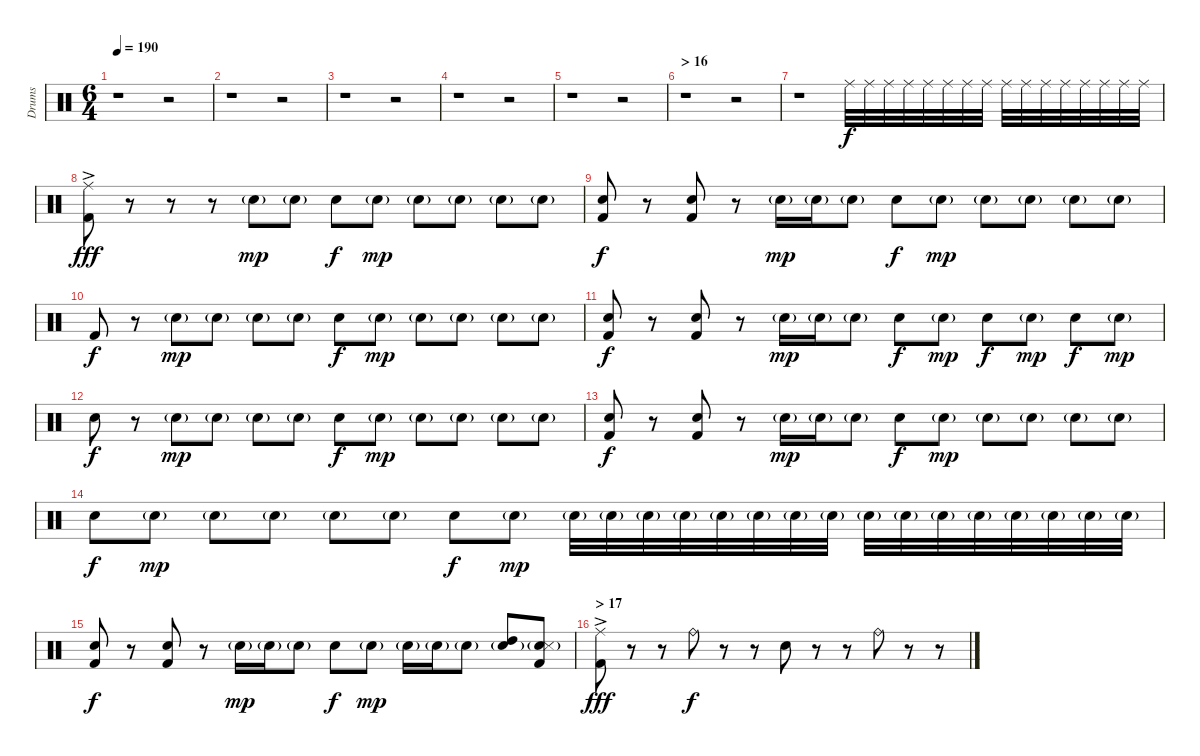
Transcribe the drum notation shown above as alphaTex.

\track ("Drums" "Drums") {instrument percussion}
\staff {score}
\articulation defaults
\ts (6 4)
\tempo 190
\clef neutral
\ks c
r.1{dy fff} r.2 |
r.1 r.2 |
r.1 r.2 |
r.1 r.2 |
r.1 r.2 |
\section ("" "> 16")
r.1 r.2 |
r.1{volume 0} "Ride (middle)".32{dy f volume 13} "Ride (middle)".32 "Ride (middle)".32 "Ride (middle)".32 "Ride (middle)".32 "Ride (middle)".32 "Ride (middle)".32 "Ride (middle)".32 "Ride (middle)".32 "Ride (middle)".32 "Ride (middle)".32 "Ride (middle)".32 "Ride (middle)".32 "Ride (middle)".32 "Ride (middle)".32 "Ride (middle)".32 |
("Ride (middle)"{ac} "Kick (hit) 2").8{dy fff} r.8 r.8 r.8 "Electric Snare (hit)"{g}.8{dy mp} "Electric Snare (hit)"{g}.8 "Electric Snare (hit)".8{dy f} "Electric Snare (hit)"{g}.8{dy mp} "Electric Snare (hit)"{g}.8 "Electric Snare (hit)"{g}.8 "Electric Snare (hit)"{g}.8 "Electric Snare (hit)"{g}.8 |
("Electric Snare (hit)" "Kick (hit) 2").8{dy f} r.8 ("Electric Snare (hit)" "Kick (hit) 2").8 r.8 "Electric Snare (hit)"{g}.16{dy mp} "Electric Snare (hit)"{g}.16 "Electric Snare (hit)"{g}.8 "Electric Snare (hit)".8{dy f} "Electric Snare (hit)"{g}.8{dy mp} "Electric Snare (hit)"{g}.8 "Electric Snare (hit)"{g}.8 "Electric Snare (hit)"{g}.8 "Electric Snare (hit)"{g}.8 |
"Kick (hit) 2".8{dy f} r.8 "Electric Snare (hit)"{g}.8{dy mp} "Electric Snare (hit)"{g}.8 "Electric Snare (hit)"{g}.8 "Electric Snare (hit)"{g}.8 "Electric Snare (hit)".8{dy f} "Electric Snare (hit)"{g}.8{dy mp} "Electric Snare (hit)"{g}.8 "Electric Snare (hit)"{g}.8 "Electric Snare (hit)"{g}.8 "Electric Snare (hit)"{g}.8 |
("Electric Snare (hit)" "Kick (hit) 2").8{dy f} r.8 ("Electric Snare (hit)" "Kick (hit) 2").8 r.8 "Electric Snare (hit)"{g}.16{dy mp} "Electric Snare (hit)"{g}.16 "Electric Snare (hit)"{g}.8 "Electric Snare (hit)".8{dy f} "Electric Snare (hit)"{g}.8{dy mp} "Electric Snare (hit)".8{dy f} "Electric Snare (hit)"{g}.8{dy mp} "Electric Snare (hit)".8{dy f} "Electric Snare (hit)"{g}.8{dy mp} |
"Electric Snare (hit)".8{dy f} r.8 "Electric Snare (hit)"{g}.8{dy mp} "Electric Snare (hit)"{g}.8 "Electric Snare (hit)"{g}.8 "Electric Snare (hit)"{g}.8 "Electric Snare (hit)".8{dy f} "Electric Snare (hit)"{g}.8{dy mp} "Electric Snare (hit)"{g}.8 "Electric Snare (hit)"{g}.8 "Electric Snare (hit)"{g}.8 "Electric Snare (hit)"{g}.8 |
("Electric Snare (hit)" "Kick (hit) 2").8{dy f} r.8 ("Electric Snare (hit)" "Kick (hit) 2").8 r.8 "Electric Snare (hit)"{g}.16{dy mp} "Electric Snare (hit)"{g}.16 "Electric Snare (hit)"{g}.8 "Electric Snare (hit)".8{dy f} "Electric Snare (hit)"{g}.8{dy mp} "Electric Snare (hit)"{g}.8 "Electric Snare (hit)"{g}.8 "Electric Snare (hit)"{g}.8 "Electric Snare (hit)"{g}.8 |
"Electric Snare (hit)".8{dy f} "Electric Snare (hit)"{g}.8{dy mp} "Electric Snare (hit)"{g}.8 "Electric Snare (hit)"{g}.8 "Electric Snare (hit)"{g}.8 "Electric Snare (hit)"{g}.8 "Electric Snare (hit)".8{dy f} "Electric Snare (hit)"{g}.8{dy mp} "Electric Snare (hit)"{g}.32 "Electric Snare (hit)"{g}.32 "Electric Snare (hit)"{g}.32 "Electric Snare (hit)"{g}.32 "Electric Snare (hit)"{g}.32 "Electric Snare (hit)"{g}.32 "Electric Snare (hit)"{g}.32 "Electric Snare (hit)"{g}.32 "Electric Snare (hit)"{g}.32 "Electric Snare (hit)"{g}.32 "Electric Snare (hit)"{g}.32 "Electric Snare (hit)"{g}.32 "Electric Snare (hit)"{g}.32 "Electric Snare (hit)"{g}.32 "Electric Snare (hit)"{g}.32 "Electric Snare (hit)"{g}.32 |
("Electric Snare (hit)" "Kick (hit) 2").8{dy f} r.8 ("Electric Snare (hit)" "Kick (hit) 2").8 r.8 "Electric Snare (hit)"{g}.16{dy mp} "Electric Snare (hit)"{g}.16 "Electric Snare (hit)"{g}.8 "Electric Snare (hit)".8{dy f} "Electric Snare (hit)"{g}.8{dy mp} "Electric Snare (hit)"{g}.16 "Electric Snare (hit)"{g}.16 "Electric Snare (hit)"{g}.8 ("High Tom (hit)" "Electric Snare (hit)"{g}).8 ("Electric Snare (hit)"{g} "Kick (hit) 2" "Snare (side stick) 3").8 |
\section ("" "> 17")
("Ride (middle)"{ac} "Kick (hit) 2").8{dy fff} r.8 r.8 "Ride (bell)".8{dy f} r.8 r.8 "Electric Snare (hit)".8 r.8 r.8 "Ride (bell)".8 r.8 r.8
